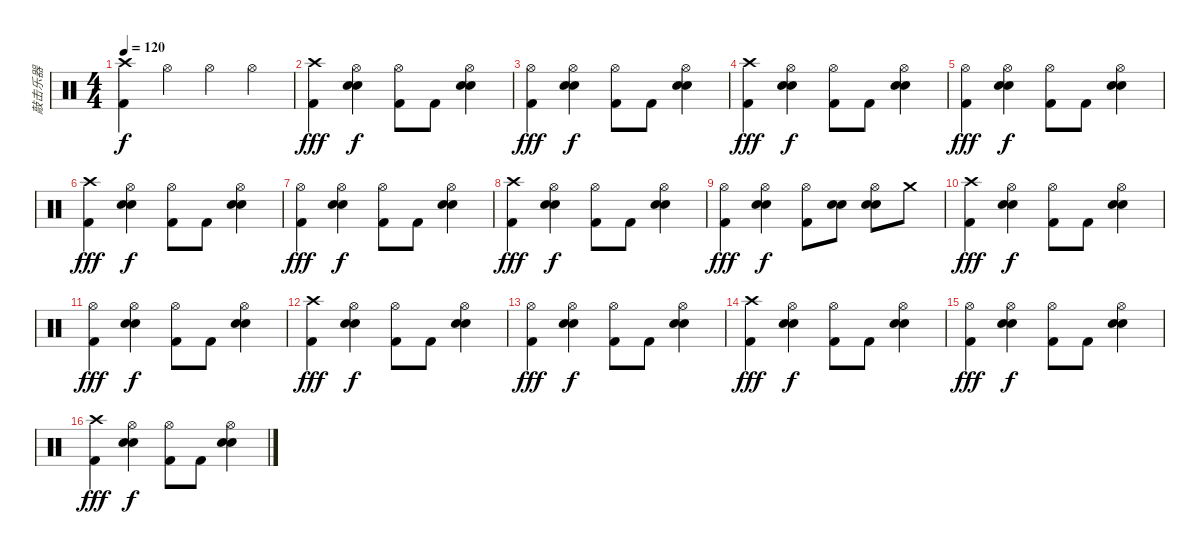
\track ("敲击乐器" "敲击乐器") {instrument percussion}
\staff {score}
\articulation defaults
\ts (4 4)
\tempo 120
\clef neutral
\ks c
("Crash high (hit)" "Kick (hit) 2").4{dy f} "Hi-Hat (open)".4 "Hi-Hat (open)".4 "Hi-Hat (open)".4 |
("Crash high (hit)" "Kick (hit) 2").4{dy fff} ("Hi-Hat (open)" "Electric Snare (hit)" "Metronome (bell)").4{dy f} ("Hi-Hat (open)" "Kick (hit) 2").8 "Kick (hit) 2".8 ("Hi-Hat (open)" "Electric Snare (hit)" "Metronome (bell)").4 |
("Hi-Hat (open)" "Kick (hit) 2").4{dy fff} ("Hi-Hat (open)" "Electric Snare (hit)" "Metronome (bell)").4{dy f} ("Hi-Hat (open)" "Kick (hit) 2").8 "Kick (hit) 2".8 ("Hi-Hat (open)" "Electric Snare (hit)" "Metronome (bell)").4 |
("Crash high (hit)" "Kick (hit) 2").4{dy fff} ("Hi-Hat (open)" "Electric Snare (hit)" "Metronome (bell)").4{dy f} ("Hi-Hat (open)" "Kick (hit) 2").8 "Kick (hit) 2".8 ("Hi-Hat (open)" "Electric Snare (hit)" "Metronome (bell)").4 |
("Hi-Hat (open)" "Kick (hit) 2").4{dy fff} ("Hi-Hat (open)" "Electric Snare (hit)" "Metronome (bell)").4{dy f} ("Hi-Hat (open)" "Kick (hit) 2").8 "Kick (hit) 2".8 ("Hi-Hat (open)" "Electric Snare (hit)" "Metronome (bell)").4 |
("Crash high (hit)" "Kick (hit) 2").4{dy fff} ("Hi-Hat (open)" "Electric Snare (hit)" "Metronome (bell)").4{dy f} ("Hi-Hat (open)" "Kick (hit) 2").8 "Kick (hit) 2".8 ("Hi-Hat (open)" "Electric Snare (hit)" "Metronome (bell)").4 |
("Hi-Hat (open)" "Kick (hit) 2").4{dy fff} ("Hi-Hat (open)" "Electric Snare (hit)" "Metronome (bell)").4{dy f} ("Hi-Hat (open)" "Kick (hit) 2").8 "Kick (hit) 2".8 ("Hi-Hat (open)" "Electric Snare (hit)" "Metronome (bell)").4 |
("Crash high (hit)" "Kick (hit) 2").4{dy fff} ("Hi-Hat (open)" "Electric Snare (hit)" "Metronome (bell)").4{dy f} ("Hi-Hat (open)" "Kick (hit) 2").8 "Kick (hit) 2".8 ("Hi-Hat (open)" "Electric Snare (hit)" "Metronome (bell)").4 |
("Hi-Hat (open)" "Kick (hit) 2").4{dy fff} ("Hi-Hat (open)" "Electric Snare (hit)" "Metronome (bell)").4{dy f} ("Hi-Hat (open)" "Kick (hit) 2").8 ("Electric Snare (hit)" "Metronome (bell)").8 ("Hi-Hat (open)" "Electric Snare (hit)" "Metronome (bell)").8 "Crash medium (hit)".8 |
("Crash high (hit)" "Kick (hit) 2").4{dy fff} ("Hi-Hat (open)" "Electric Snare (hit)" "Metronome (bell)").4{dy f} ("Hi-Hat (open)" "Kick (hit) 2").8 "Kick (hit) 2".8 ("Hi-Hat (open)" "Electric Snare (hit)" "Metronome (bell)").4 |
("Hi-Hat (open)" "Kick (hit) 2").4{dy fff} ("Hi-Hat (open)" "Electric Snare (hit)" "Metronome (bell)").4{dy f} ("Hi-Hat (open)" "Kick (hit) 2").8 "Kick (hit) 2".8 ("Hi-Hat (open)" "Electric Snare (hit)" "Metronome (bell)").4 |
("Crash high (hit)" "Kick (hit) 2").4{dy fff} ("Hi-Hat (open)" "Electric Snare (hit)" "Metronome (bell)").4{dy f} ("Hi-Hat (open)" "Kick (hit) 2").8 "Kick (hit) 2".8 ("Hi-Hat (open)" "Electric Snare (hit)" "Metronome (bell)").4 |
("Hi-Hat (open)" "Kick (hit) 2").4{dy fff} ("Hi-Hat (open)" "Electric Snare (hit)" "Metronome (bell)").4{dy f} ("Hi-Hat (open)" "Kick (hit) 2").8 "Kick (hit) 2".8 ("Hi-Hat (open)" "Electric Snare (hit)" "Metronome (bell)").4 |
("Crash high (hit)" "Kick (hit) 2").4{dy fff} ("Hi-Hat (open)" "Electric Snare (hit)" "Metronome (bell)").4{dy f} ("Hi-Hat (open)" "Kick (hit) 2").8 "Kick (hit) 2".8 ("Hi-Hat (open)" "Electric Snare (hit)" "Metronome (bell)").4 |
("Hi-Hat (open)" "Kick (hit) 2").4{dy fff} ("Hi-Hat (open)" "Electric Snare (hit)" "Metronome (bell)").4{dy f} ("Hi-Hat (open)" "Kick (hit) 2").8 "Kick (hit) 2".8 ("Hi-Hat (open)" "Electric Snare (hit)" "Metronome (bell)").4 |
("Crash high (hit)" "Kick (hit) 2").4{dy fff} ("Hi-Hat (open)" "Electric Snare (hit)" "Metronome (bell)").4{dy f} ("Hi-Hat (open)" "Kick (hit) 2").8 "Kick (hit) 2".8 ("Hi-Hat (open)" "Electric Snare (hit)" "Metronome (bell)").4
